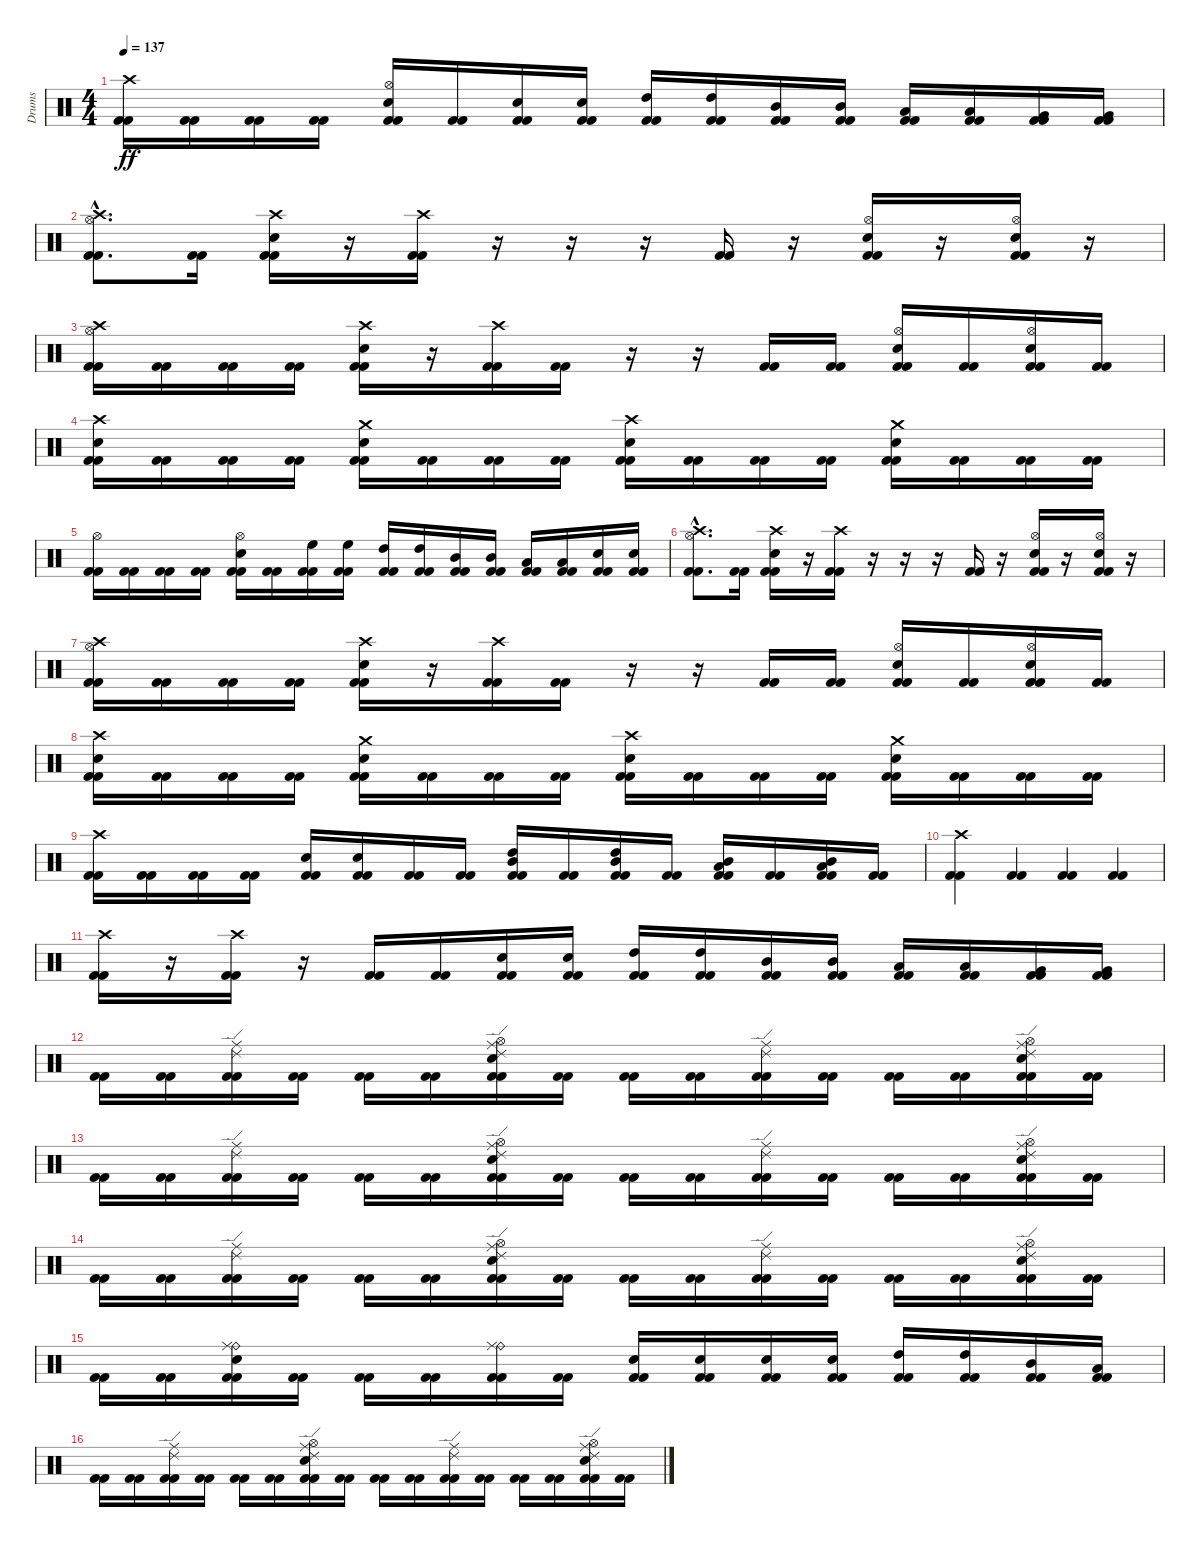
\track ("Drums" "Drums") {instrument percussion}
\staff {score}
\articulation defaults
\ts (4 4)
\tempo 137
\clef neutral
\ks c
("Crash high (hit)" "Kick (hit) 2" "Kick (hit) 2").16{dy ff} ("Kick (hit) 2" "Kick (hit) 2").16 ("Kick (hit) 2" "Kick (hit) 2").16 ("Kick (hit) 2" "Kick (hit) 2").16 ("Hi-Hat (open)" "Electric Snare (hit)" "Kick (hit) 2" "Kick (hit) 2").16 ("Kick (hit) 2" "Kick (hit) 2").16 ("Electric Snare (hit)" "Kick (hit) 2" "Kick (hit) 2").16 ("Electric Snare (hit)" "Kick (hit) 2" "Kick (hit) 2").16 ("High Tom (hit)" "Kick (hit) 2" "Kick (hit) 2").16 ("High Tom (hit)" "Kick (hit) 2" "Kick (hit) 2").16 ("Mid Tom (hit)" "Kick (hit) 2" "Kick (hit) 2").16 ("Mid Tom (hit)" "Kick (hit) 2" "Kick (hit) 2").16 ("Low Tom (hit)" "Kick (hit) 2" "Kick (hit) 2").16 ("Low Tom (hit)" "Kick (hit) 2" "Kick (hit) 2").16 ("Very Low Tom (hit)" "Kick (hit) 2" "Kick (hit) 2").16 ("Very Low Tom (hit)" "Kick (hit) 2" "Kick (hit) 2").16 |
("Hi-Hat (open)"{hac} "Crash high (hit)"{hac} "Kick (hit) 2"{hac} "Kick (hit) 2"{hac}).8{d} ("Kick (hit) 2" "Kick (hit) 2").16 ("Crash high (hit)" "Electric Snare (hit)" "Kick (hit) 2" "Kick (hit) 2").16 r.16 ("Crash high (hit)" "Kick (hit) 2" "Kick (hit) 2").16 r.16 r.16 r.16 ("Kick (hit) 2" "Kick (hit) 2").16 r.16 ("Hi-Hat (open)" "Electric Snare (hit)" "Kick (hit) 2" "Kick (hit) 2").16 r.16 ("Hi-Hat (open)" "Electric Snare (hit)" "Kick (hit) 2" "Kick (hit) 2").16 r.16 |
("Hi-Hat (open)" "Crash high (hit)" "Kick (hit) 2" "Kick (hit) 2").16 ("Kick (hit) 2" "Kick (hit) 2").16 ("Kick (hit) 2" "Kick (hit) 2").16 ("Kick (hit) 2" "Kick (hit) 2").16 ("Crash high (hit)" "Electric Snare (hit)" "Kick (hit) 2" "Kick (hit) 2").16 r.16 ("Crash high (hit)" "Kick (hit) 2" "Kick (hit) 2").16 ("Kick (hit) 2" "Kick (hit) 2").16 r.16 r.16 ("Kick (hit) 2" "Kick (hit) 2").16 ("Kick (hit) 2" "Kick (hit) 2").16 ("Hi-Hat (open)" "Electric Snare (hit)" "Kick (hit) 2" "Kick (hit) 2").16 ("Kick (hit) 2" "Kick (hit) 2").16 ("Hi-Hat (open)" "Electric Snare (hit)" "Kick (hit) 2" "Kick (hit) 2").16 ("Kick (hit) 2" "Kick (hit) 2").16 |
("Crash high (hit)" "Electric Snare (hit)" "Kick (hit) 2" "Kick (hit) 2").16 ("Kick (hit) 2" "Kick (hit) 2").16 ("Kick (hit) 2" "Kick (hit) 2").16 ("Kick (hit) 2" "Kick (hit) 2").16 ("Crash medium (hit)" "Electric Snare (hit)" "Kick (hit) 2" "Kick (hit) 2").16 ("Kick (hit) 2" "Kick (hit) 2").16 ("Kick (hit) 2" "Kick (hit) 2").16 ("Kick (hit) 2" "Kick (hit) 2").16 ("Crash high (hit)" "Electric Snare (hit)" "Kick (hit) 2" "Kick (hit) 2").16 ("Kick (hit) 2" "Kick (hit) 2").16 ("Kick (hit) 2" "Kick (hit) 2").16 ("Kick (hit) 2" "Kick (hit) 2").16 ("Crash medium (hit)" "Electric Snare (hit)" "Kick (hit) 2" "Kick (hit) 2").16 ("Kick (hit) 2" "Kick (hit) 2").16 ("Kick (hit) 2" "Kick (hit) 2").16 ("Kick (hit) 2" "Kick (hit) 2").16 |
("Hi-Hat (open)" "Kick (hit) 2" "Kick (hit) 2").16 ("Kick (hit) 2" "Kick (hit) 2").16 ("Kick (hit) 2" "Kick (hit) 2").16 ("Kick (hit) 2" "Kick (hit) 2").16 ("Hi-Hat (open)" "Electric Snare (hit)" "Kick (hit) 2" "Kick (hit) 2").16 ("Kick (hit) 2" "Kick (hit) 2").16 ("High Floor Tom (hit)" "Kick (hit) 2" "Kick (hit) 2").16 ("High Floor Tom (hit)" "Kick (hit) 2" "Kick (hit) 2").16 ("High Tom (hit)" "Kick (hit) 2" "Kick (hit) 2").16 ("High Tom (hit)" "Kick (hit) 2" "Kick (hit) 2").16 ("Mid Tom (hit)" "Kick (hit) 2" "Kick (hit) 2").16 ("Mid Tom (hit)" "Kick (hit) 2" "Kick (hit) 2").16 ("Low Tom (hit)" "Kick (hit) 2" "Kick (hit) 2").16 ("Low Tom (hit)" "Kick (hit) 2" "Kick (hit) 2").16 ("Electric Snare (hit)" "Kick (hit) 2" "Kick (hit) 2").16 ("Electric Snare (hit)" "Kick (hit) 2" "Kick (hit) 2").16 |
("Hi-Hat (open)"{hac} "Crash high (hit)"{hac} "Kick (hit) 2"{hac} "Kick (hit) 2"{hac}).8{d} ("Kick (hit) 2" "Kick (hit) 2").16 ("Crash high (hit)" "Electric Snare (hit)" "Kick (hit) 2" "Kick (hit) 2").16 r.16 ("Crash high (hit)" "Kick (hit) 2" "Kick (hit) 2").16 r.16 r.16 r.16 ("Kick (hit) 2" "Kick (hit) 2").16 r.16 ("Hi-Hat (open)" "Electric Snare (hit)" "Kick (hit) 2" "Kick (hit) 2").16 r.16 ("Hi-Hat (open)" "Electric Snare (hit)" "Kick (hit) 2" "Kick (hit) 2").16 r.16 |
("Hi-Hat (open)" "Crash high (hit)" "Kick (hit) 2" "Kick (hit) 2").16 ("Kick (hit) 2" "Kick (hit) 2").16 ("Kick (hit) 2" "Kick (hit) 2").16 ("Kick (hit) 2" "Kick (hit) 2").16 ("Crash high (hit)" "Electric Snare (hit)" "Kick (hit) 2" "Kick (hit) 2").16 r.16 ("Crash high (hit)" "Kick (hit) 2" "Kick (hit) 2").16 ("Kick (hit) 2" "Kick (hit) 2").16 r.16 r.16 ("Kick (hit) 2" "Kick (hit) 2").16 ("Kick (hit) 2" "Kick (hit) 2").16 ("Hi-Hat (open)" "Electric Snare (hit)" "Kick (hit) 2" "Kick (hit) 2").16 ("Kick (hit) 2" "Kick (hit) 2").16 ("Hi-Hat (open)" "Electric Snare (hit)" "Kick (hit) 2" "Kick (hit) 2").16 ("Kick (hit) 2" "Kick (hit) 2").16 |
("Crash high (hit)" "Electric Snare (hit)" "Kick (hit) 2" "Kick (hit) 2").16 ("Kick (hit) 2" "Kick (hit) 2").16 ("Kick (hit) 2" "Kick (hit) 2").16 ("Kick (hit) 2" "Kick (hit) 2").16 ("Crash medium (hit)" "Electric Snare (hit)" "Kick (hit) 2" "Kick (hit) 2").16 ("Kick (hit) 2" "Kick (hit) 2").16 ("Kick (hit) 2" "Kick (hit) 2").16 ("Kick (hit) 2" "Kick (hit) 2").16 ("Crash high (hit)" "Electric Snare (hit)" "Kick (hit) 2" "Kick (hit) 2").16 ("Kick (hit) 2" "Kick (hit) 2").16 ("Kick (hit) 2" "Kick (hit) 2").16 ("Kick (hit) 2" "Kick (hit) 2").16 ("Crash medium (hit)" "Electric Snare (hit)" "Kick (hit) 2" "Kick (hit) 2").16 ("Kick (hit) 2" "Kick (hit) 2").16 ("Kick (hit) 2" "Kick (hit) 2").16 ("Kick (hit) 2" "Kick (hit) 2").16 |
("Crash high (hit)" "Kick (hit) 2" "Kick (hit) 2").16 ("Kick (hit) 2" "Kick (hit) 2").16 ("Kick (hit) 2" "Kick (hit) 2").16 ("Kick (hit) 2" "Kick (hit) 2").16 ("Electric Snare (hit)" "Kick (hit) 2" "Kick (hit) 2").16 ("Electric Snare (hit)" "Kick (hit) 2" "Kick (hit) 2").16 ("Kick (hit) 2" "Kick (hit) 2").16 ("Kick (hit) 2" "Kick (hit) 2").16 ("Mid Tom (hit)" "High Tom (hit)" "Kick (hit) 2" "Kick (hit) 2").16 ("Kick (hit) 2" "Kick (hit) 2").16 ("Mid Tom (hit)" "High Tom (hit)" "Kick (hit) 2" "Kick (hit) 2").16 ("Kick (hit) 2" "Kick (hit) 2").16 ("Low Tom (hit)" "Mid Tom (hit)" "Kick (hit) 2" "Kick (hit) 2").16 ("Kick (hit) 2" "Kick (hit) 2").16 ("Low Tom (hit)" "Mid Tom (hit)" "Kick (hit) 2" "Kick (hit) 2").16 ("Kick (hit) 2" "Kick (hit) 2").16 |
("Crash high (hit)" "Kick (hit) 2" "Kick (hit) 2").4 ("Kick (hit) 2" "Kick (hit) 2").4 ("Kick (hit) 2" "Kick (hit) 2").4 ("Kick (hit) 2" "Kick (hit) 2").4 |
("Crash high (hit)" "Kick (hit) 2" "Kick (hit) 2").16 r.16 ("Crash high (hit)" "Kick (hit) 2" "Kick (hit) 2").16 r.16 ("Kick (hit) 2" "Kick (hit) 2").16 ("Kick (hit) 2" "Kick (hit) 2").16 ("Electric Snare (hit)" "Kick (hit) 2" "Kick (hit) 2").16 ("Electric Snare (hit)" "Kick (hit) 2" "Kick (hit) 2").16 ("High Tom (hit)" "Kick (hit) 2" "Kick (hit) 2").16 ("High Tom (hit)" "Kick (hit) 2" "Kick (hit) 2").16 ("Mid Tom (hit)" "Kick (hit) 2" "Kick (hit) 2").16 ("Mid Tom (hit)" "Kick (hit) 2" "Kick (hit) 2").16 ("Low Tom (hit)" "Kick (hit) 2" "Kick (hit) 2").16 ("Low Tom (hit)" "Kick (hit) 2" "Kick (hit) 2").16 ("Very Low Tom (hit)" "Kick (hit) 2" "Kick (hit) 2").16 ("Very Low Tom (hit)" "Kick (hit) 2" "Kick (hit) 2").16 |
("Kick (hit) 2" "Kick (hit) 2").16 ("Kick (hit) 2" "Kick (hit) 2").16 ("Ride (edge) 2" "Ride (middle)" "Kick (hit) 2" "Kick (hit) 2").16 ("Kick (hit) 2" "Kick (hit) 2").16 ("Kick (hit) 2" "Kick (hit) 2").16 ("Kick (hit) 2" "Kick (hit) 2").16 ("Ride (edge) 2" "Hi-Hat (open)" "Ride (middle)" "Electric Snare (hit)" "Kick (hit) 2" "Kick (hit) 2").16 ("Kick (hit) 2" "Kick (hit) 2").16 ("Kick (hit) 2" "Kick (hit) 2").16 ("Kick (hit) 2" "Kick (hit) 2").16 ("Ride (edge) 2" "Ride (middle)" "Kick (hit) 2" "Kick (hit) 2").16 ("Kick (hit) 2" "Kick (hit) 2").16 ("Kick (hit) 2" "Kick (hit) 2").16 ("Kick (hit) 2" "Kick (hit) 2").16 ("Ride (edge) 2" "Hi-Hat (open)" "Ride (middle)" "Electric Snare (hit)" "Kick (hit) 2" "Kick (hit) 2").16 ("Kick (hit) 2" "Kick (hit) 2").16 |
("Kick (hit) 2" "Kick (hit) 2").16 ("Kick (hit) 2" "Kick (hit) 2").16 ("Ride (edge) 2" "Ride (middle)" "Kick (hit) 2" "Kick (hit) 2").16 ("Kick (hit) 2" "Kick (hit) 2").16 ("Kick (hit) 2" "Kick (hit) 2").16 ("Kick (hit) 2" "Kick (hit) 2").16 ("Ride (edge) 2" "Hi-Hat (open)" "Ride (middle)" "Electric Snare (hit)" "Kick (hit) 2" "Kick (hit) 2").16 ("Kick (hit) 2" "Kick (hit) 2").16 ("Kick (hit) 2" "Kick (hit) 2").16 ("Kick (hit) 2" "Kick (hit) 2").16 ("Ride (edge) 2" "Ride (middle)" "Kick (hit) 2" "Kick (hit) 2").16 ("Kick (hit) 2" "Kick (hit) 2").16 ("Kick (hit) 2" "Kick (hit) 2").16 ("Kick (hit) 2" "Kick (hit) 2").16 ("Ride (edge) 2" "Hi-Hat (open)" "Ride (middle)" "Electric Snare (hit)" "Kick (hit) 2" "Kick (hit) 2").16 ("Kick (hit) 2" "Kick (hit) 2").16 |
("Kick (hit) 2" "Kick (hit) 2").16 ("Kick (hit) 2" "Kick (hit) 2").16 ("Ride (edge) 2" "Ride (middle)" "Kick (hit) 2" "Kick (hit) 2").16 ("Kick (hit) 2" "Kick (hit) 2").16 ("Kick (hit) 2" "Kick (hit) 2").16 ("Kick (hit) 2" "Kick (hit) 2").16 ("Ride (edge) 2" "Hi-Hat (open)" "Ride (middle)" "Electric Snare (hit)" "Kick (hit) 2" "Kick (hit) 2").16 ("Kick (hit) 2" "Kick (hit) 2").16 ("Kick (hit) 2" "Kick (hit) 2").16 ("Kick (hit) 2" "Kick (hit) 2").16 ("Ride (edge) 2" "Ride (middle)" "Kick (hit) 2" "Kick (hit) 2").16 ("Kick (hit) 2" "Kick (hit) 2").16 ("Kick (hit) 2" "Kick (hit) 2").16 ("Kick (hit) 2" "Kick (hit) 2").16 ("Ride (edge) 2" "Hi-Hat (open)" "Ride (middle)" "Electric Snare (hit)" "Kick (hit) 2" "Kick (hit) 2").16 ("Kick (hit) 2" "Kick (hit) 2").16 |
("Kick (hit) 2" "Kick (hit) 2").16 ("Kick (hit) 2" "Kick (hit) 2").16 ("Ride (bell)" "Electric Snare (hit)" "Ride (middle)" "Kick (hit) 2" "Kick (hit) 2").16 ("Kick (hit) 2" "Kick (hit) 2").16 ("Kick (hit) 2" "Kick (hit) 2").16 ("Kick (hit) 2" "Kick (hit) 2").16 ("Ride (bell)" "Ride (middle)" "Kick (hit) 2" "Kick (hit) 2").16 ("Kick (hit) 2" "Kick (hit) 2").16 ("Electric Snare (hit)" "Kick (hit) 2" "Kick (hit) 2").16 ("Electric Snare (hit)" "Kick (hit) 2" "Kick (hit) 2").16 ("Electric Snare (hit)" "Kick (hit) 2" "Kick (hit) 2").16 ("Electric Snare (hit)" "Kick (hit) 2" "Kick (hit) 2").16 ("High Tom (hit)" "Kick (hit) 2" "Kick (hit) 2").16 ("High Tom (hit)" "Kick (hit) 2" "Kick (hit) 2").16 ("Mid Tom (hit)" "Kick (hit) 2" "Kick (hit) 2").16 ("Low Tom (hit)" "Kick (hit) 2" "Kick (hit) 2").16 |
("Kick (hit) 2" "Kick (hit) 2").16 ("Kick (hit) 2" "Kick (hit) 2").16 ("Ride (edge) 2" "Ride (middle)" "Kick (hit) 2" "Kick (hit) 2").16 ("Kick (hit) 2" "Kick (hit) 2").16 ("Kick (hit) 2" "Kick (hit) 2").16 ("Kick (hit) 2" "Kick (hit) 2").16 ("Ride (edge) 2" "Hi-Hat (open)" "Ride (middle)" "Electric Snare (hit)" "Kick (hit) 2" "Kick (hit) 2").16 ("Kick (hit) 2" "Kick (hit) 2").16 ("Kick (hit) 2" "Kick (hit) 2").16 ("Kick (hit) 2" "Kick (hit) 2").16 ("Ride (edge) 2" "Ride (middle)" "Kick (hit) 2" "Kick (hit) 2").16 ("Kick (hit) 2" "Kick (hit) 2").16 ("Kick (hit) 2" "Kick (hit) 2").16 ("Kick (hit) 2" "Kick (hit) 2").16 ("Ride (edge) 2" "Hi-Hat (open)" "Ride (middle)" "Electric Snare (hit)" "Kick (hit) 2" "Kick (hit) 2").16 ("Kick (hit) 2" "Kick (hit) 2").16
